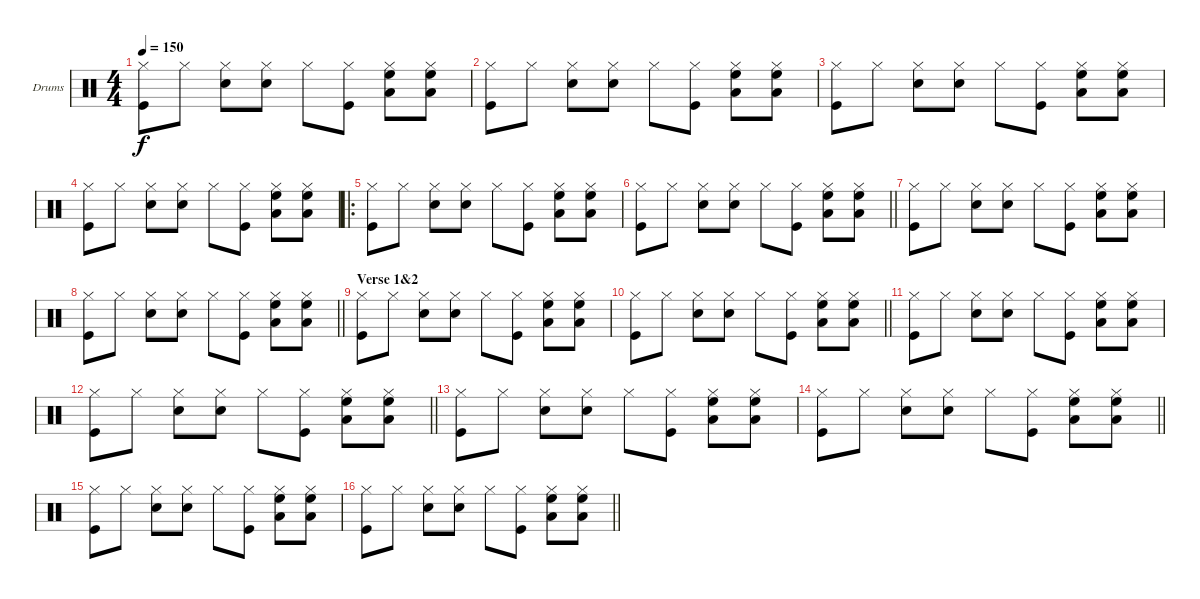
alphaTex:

\bracketExtendMode groupsimilarinstruments
\firstSystemTrackNameOrientation horizontal
\otherSystemsTrackNameOrientation horizontal
\track ("Drumkit" "Drums") {instrument percussion}
\staff {score}
\articulation defaults
\ts (4 4)
\beaming (8 2 2 2 2)
\tempo 150
\clef neutral
\ks c
("Hi-Hat (closed)" "Kick (hit)").8{dy f} "Hi-Hat (closed)".8 ("Hi-Hat (closed)" "Snare (hit) 2").8 ("Hi-Hat (closed)" "Snare (hit) 2").8 "Hi-Hat (closed)".8 ("Hi-Hat (closed)" "Kick (hit)").8 ("Hi-Hat (closed)" "High Floor Tom (hit)" "Low Tom (hit)").8 ("Hi-Hat (closed)" "High Floor Tom (hit)" "Low Tom (hit)").8 |
("Hi-Hat (closed)" "Kick (hit)").8 "Hi-Hat (closed)".8 ("Hi-Hat (closed)" "Snare (hit) 2").8 ("Hi-Hat (closed)" "Snare (hit) 2").8 "Hi-Hat (closed)".8 ("Hi-Hat (closed)" "Kick (hit)").8 ("Hi-Hat (closed)" "High Floor Tom (hit)" "Low Tom (hit)").8 ("Hi-Hat (closed)" "High Floor Tom (hit)" "Low Tom (hit)").8 |
("Hi-Hat (closed)" "Kick (hit)").8 "Hi-Hat (closed)".8 ("Hi-Hat (closed)" "Snare (hit) 2").8 ("Hi-Hat (closed)" "Snare (hit) 2").8 "Hi-Hat (closed)".8 ("Hi-Hat (closed)" "Kick (hit)").8 ("Hi-Hat (closed)" "High Floor Tom (hit)" "Low Tom (hit)").8 ("Hi-Hat (closed)" "High Floor Tom (hit)" "Low Tom (hit)").8 |
("Hi-Hat (closed)" "Kick (hit)").8 "Hi-Hat (closed)".8 ("Hi-Hat (closed)" "Snare (hit) 2").8 ("Hi-Hat (closed)" "Snare (hit) 2").8 "Hi-Hat (closed)".8 ("Hi-Hat (closed)" "Kick (hit)").8 ("Hi-Hat (closed)" "High Floor Tom (hit)" "Low Tom (hit)").8 ("Hi-Hat (closed)" "High Floor Tom (hit)" "Low Tom (hit)").8 |
\ro
("Hi-Hat (closed)" "Kick (hit)").8 "Hi-Hat (closed)".8 ("Hi-Hat (closed)" "Snare (hit) 2").8 ("Hi-Hat (closed)" "Snare (hit) 2").8 "Hi-Hat (closed)".8 ("Hi-Hat (closed)" "Kick (hit)").8 ("Hi-Hat (closed)" "High Floor Tom (hit)" "Low Tom (hit)").8 ("Hi-Hat (closed)" "High Floor Tom (hit)" "Low Tom (hit)").8 |
\barLineRight lightlight
("Hi-Hat (closed)" "Kick (hit)").8 "Hi-Hat (closed)".8 ("Hi-Hat (closed)" "Snare (hit) 2").8 ("Hi-Hat (closed)" "Snare (hit) 2").8 "Hi-Hat (closed)".8 ("Hi-Hat (closed)" "Kick (hit)").8 ("Hi-Hat (closed)" "High Floor Tom (hit)" "Low Tom (hit)").8 ("Hi-Hat (closed)" "High Floor Tom (hit)" "Low Tom (hit)").8 |
("Hi-Hat (closed)" "Kick (hit)").8 "Hi-Hat (closed)".8 ("Hi-Hat (closed)" "Snare (hit) 2").8 ("Hi-Hat (closed)" "Snare (hit) 2").8 "Hi-Hat (closed)".8 ("Hi-Hat (closed)" "Kick (hit)").8 ("Hi-Hat (closed)" "High Floor Tom (hit)" "Low Tom (hit)").8 ("Hi-Hat (closed)" "High Floor Tom (hit)" "Low Tom (hit)").8 |
\barLineRight lightlight
("Hi-Hat (closed)" "Kick (hit)").8 "Hi-Hat (closed)".8 ("Hi-Hat (closed)" "Snare (hit) 2").8 ("Hi-Hat (closed)" "Snare (hit) 2").8 "Hi-Hat (closed)".8 ("Hi-Hat (closed)" "Kick (hit)").8 ("Hi-Hat (closed)" "High Floor Tom (hit)" "Low Tom (hit)").8 ("Hi-Hat (closed)" "High Floor Tom (hit)" "Low Tom (hit)").8 |
\section ("" "Verse 1&2")
("Hi-Hat (closed)" "Kick (hit)").8 "Hi-Hat (closed)".8 ("Hi-Hat (closed)" "Snare (hit) 2").8 ("Hi-Hat (closed)" "Snare (hit) 2").8 "Hi-Hat (closed)".8 ("Hi-Hat (closed)" "Kick (hit)").8 ("Hi-Hat (closed)" "High Floor Tom (hit)" "Low Tom (hit)").8 ("Hi-Hat (closed)" "High Floor Tom (hit)" "Low Tom (hit)").8 |
\barLineRight lightlight
("Hi-Hat (closed)" "Kick (hit)").8 "Hi-Hat (closed)".8 ("Hi-Hat (closed)" "Snare (hit) 2").8 ("Hi-Hat (closed)" "Snare (hit) 2").8 "Hi-Hat (closed)".8 ("Hi-Hat (closed)" "Kick (hit)").8 ("Hi-Hat (closed)" "High Floor Tom (hit)" "Low Tom (hit)").8 ("Hi-Hat (closed)" "High Floor Tom (hit)" "Low Tom (hit)").8 |
("Hi-Hat (closed)" "Kick (hit)").8 "Hi-Hat (closed)".8 ("Hi-Hat (closed)" "Snare (hit) 2").8 ("Hi-Hat (closed)" "Snare (hit) 2").8 "Hi-Hat (closed)".8 ("Hi-Hat (closed)" "Kick (hit)").8 ("Hi-Hat (closed)" "High Floor Tom (hit)" "Low Tom (hit)").8 ("Hi-Hat (closed)" "High Floor Tom (hit)" "Low Tom (hit)").8 |
\barLineRight lightlight
("Hi-Hat (closed)" "Kick (hit)").8 "Hi-Hat (closed)".8 ("Hi-Hat (closed)" "Snare (hit) 2").8 ("Hi-Hat (closed)" "Snare (hit) 2").8 "Hi-Hat (closed)".8 ("Hi-Hat (closed)" "Kick (hit)").8 ("Hi-Hat (closed)" "High Floor Tom (hit)" "Low Tom (hit)").8 ("Hi-Hat (closed)" "High Floor Tom (hit)" "Low Tom (hit)").8 |
("Hi-Hat (closed)" "Kick (hit)").8 "Hi-Hat (closed)".8 ("Hi-Hat (closed)" "Snare (hit) 2").8 ("Hi-Hat (closed)" "Snare (hit) 2").8 "Hi-Hat (closed)".8 ("Hi-Hat (closed)" "Kick (hit)").8 ("Hi-Hat (closed)" "High Floor Tom (hit)" "Low Tom (hit)").8 ("Hi-Hat (closed)" "High Floor Tom (hit)" "Low Tom (hit)").8 |
\barLineRight lightlight
("Hi-Hat (closed)" "Kick (hit)").8 "Hi-Hat (closed)".8 ("Hi-Hat (closed)" "Snare (hit) 2").8 ("Hi-Hat (closed)" "Snare (hit) 2").8 "Hi-Hat (closed)".8 ("Hi-Hat (closed)" "Kick (hit)").8 ("Hi-Hat (closed)" "High Floor Tom (hit)" "Low Tom (hit)").8 ("Hi-Hat (closed)" "High Floor Tom (hit)" "Low Tom (hit)").8 |
("Hi-Hat (closed)" "Kick (hit)").8 "Hi-Hat (closed)".8 ("Hi-Hat (closed)" "Snare (hit) 2").8 ("Hi-Hat (closed)" "Snare (hit) 2").8 "Hi-Hat (closed)".8 ("Hi-Hat (closed)" "Kick (hit)").8 ("Hi-Hat (closed)" "High Floor Tom (hit)" "Low Tom (hit)").8 ("Hi-Hat (closed)" "High Floor Tom (hit)" "Low Tom (hit)").8 |
\barLineRight lightlight
("Hi-Hat (closed)" "Kick (hit)").8 "Hi-Hat (closed)".8 ("Hi-Hat (closed)" "Snare (hit) 2").8 ("Hi-Hat (closed)" "Snare (hit) 2").8 "Hi-Hat (closed)".8 ("Hi-Hat (closed)" "Kick (hit)").8 ("Hi-Hat (closed)" "High Floor Tom (hit)" "Low Tom (hit)").8 ("Hi-Hat (closed)" "High Floor Tom (hit)" "Low Tom (hit)").8
